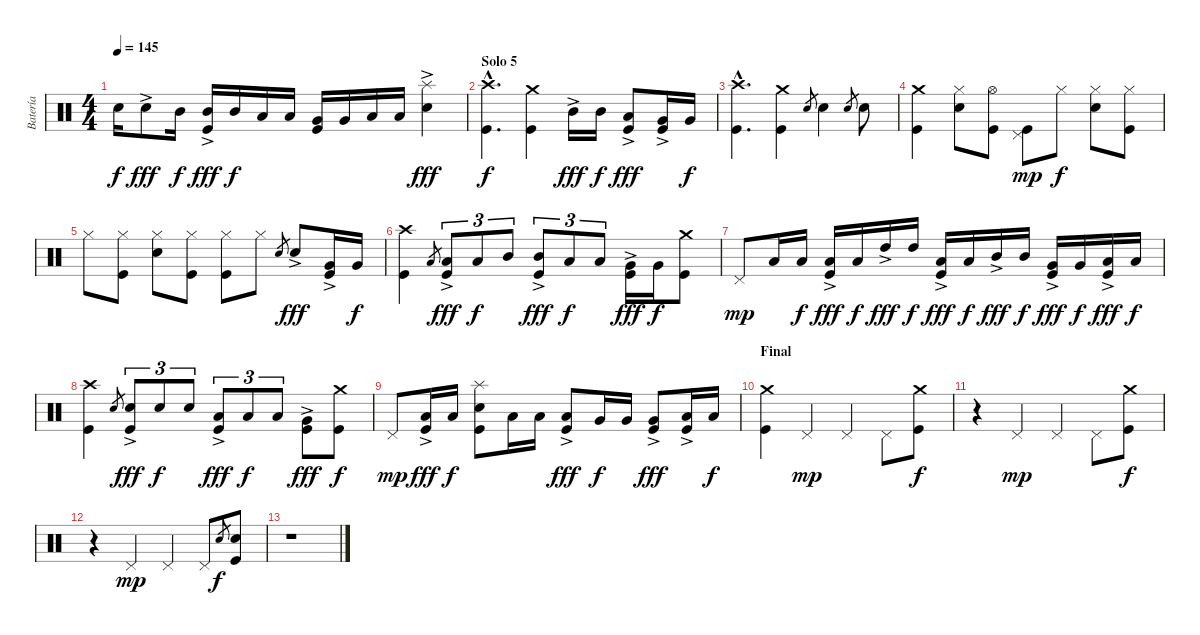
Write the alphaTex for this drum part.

\track ("Batería" "Batería") {instrument percussion}
\staff {score}
\articulation defaults
\ts (4 4)
\tempo 145
\clef neutral
\ks c "Electric Snare (hit)".16{dy f} "Electric Snare (hit)"{ac}.8{dy fff} "Mid Tom (hit)".16{dy f}
("Kick (hit)" "Mid Tom (hit)"{ac}).16{dy fff} "Mid Tom (hit)".16{dy f} "Low Tom (hit)".16 "Low Tom (hit)".16 ("Kick (hit)" "Very Low Tom (hit)").16 "Very Low Tom (hit)".16 "Low Floor Tom (hit)".16 "Low Floor Tom (hit)".16 ("Electric Snare (hit)" "Splash (hit)"{ac}).4{dy fff} |
\section ("" "Solo 5")
("Kick (hit)"{hac} "Crash high (hit)"{hac}).4{d dy f} ("Kick (hit)" "Crash medium (hit)").4 "Mid Tom (hit)"{ac}.16{dy fff} "Mid Tom (hit)".16{dy f} ("Kick (hit)" "Low Tom (hit)"{ac}).8{dy fff} ("Kick (hit)" "Very Low Tom (hit)"{ac}).16 "Very Low Tom (hit)".16{dy f} |
("Kick (hit)"{hac} "Crash high (hit)"{hac}).4{d} ("Kick (hit)" "Crash medium (hit)").4 "Electric Snare (hit)".8{gr} "Electric Snare (hit)".4 "Electric Snare (hit)".8{gr} "Electric Snare (hit)".8 |
("Kick (hit)" "Crash medium (hit)").4 ("Electric Snare (hit)" "Hi-Hat (closed)").8 ("Kick (hit)" "Hi-Hat (open)").8 ("Kick (hit)" "Pedal Hi-Hat (hit)").8{dy mp} "Hi-Hat (closed)".8{dy f} ("Electric Snare (hit)" "Hi-Hat (closed)").8 ("Kick (hit)" "Hi-Hat (closed)").8 |
"Hi-Hat (closed)".8 ("Kick (hit)" "Hi-Hat (closed)").8 ("Electric Snare (hit)" "Hi-Hat (closed)").8 ("Kick (hit)" "Hi-Hat (closed)").8 ("Kick (hit)" "Hi-Hat (closed)").8 "Hi-Hat (closed)".8 "Electric Snare (hit)".8{gr} "Electric Snare (hit)"{ac}.8{dy fff} ("Kick (hit)" "Very Low Tom (hit)"{ac}).16 "Very Low Tom (hit)".16{dy f} |
("Kick (hit)" "Crash high (hit)").4 "Low Tom (hit)".8{gr} ("Kick (hit)" "Low Tom (hit)"{ac}).8{tu (3 2) dy fff} "Low Tom (hit)".8{tu (3 2) dy f} "Mid Tom (hit)".8{tu (3 2)} ("Kick (hit)" "Mid Tom (hit)"{ac}).8{tu (3 2) dy fff} "Low Tom (hit)".8{tu (3 2) dy f} "Low Tom (hit)".8{tu (3 2)} ("Kick (hit)" "Very Low Tom (hit)"{ac}).16{dy fff} "Very Low Tom (hit)".16{dy f} ("Kick (hit)" "Crash medium (hit)").8 |
"Pedal Hi-Hat (hit)".8{dy mp} "Low Tom (hit)".16 "Low Tom (hit)".16{dy f} ("Kick (hit)" "Low Tom (hit)"{ac}).16{dy fff} "Low Tom (hit)".16{dy f} "High Tom (hit)"{ac}.16{dy fff} "High Tom (hit)".16{dy f} ("Kick (hit)" "Low Tom (hit)"{ac}).16{dy fff} "Low Tom (hit)".16{dy f} "Mid Tom (hit)"{ac}.16{dy fff} "Mid Tom (hit)".16{dy f} ("Kick (hit)" "Very Low Tom (hit)"{ac}).16{dy fff} "Very Low Tom (hit)".16{dy f} ("Kick (hit)" "Low Floor Tom (hit)"{ac}).16{dy fff} "Low Floor Tom (hit)".16{dy f} |
("Kick (hit)" "Crash high (hit)").4 "Electric Snare (hit)".8{gr} ("Kick (hit)" "Electric Snare (hit)"{ac}).8{tu (3 2) dy fff} "Electric Snare (hit)".8{tu (3 2) dy f} "Electric Snare (hit)".8{tu (3 2)} ("Kick (hit)" "Low Tom (hit)"{ac}).8{tu (3 2) dy fff} "Low Tom (hit)".8{tu (3 2) dy f} "Low Tom (hit)".8{tu (3 2)} ("Kick (hit)" "Very Low Tom (hit)"{ac}).8{dy fff} ("Kick (hit)" "Crash medium (hit)").8{dy f} |
"Pedal Hi-Hat (hit)".8{dy mp} ("Kick (hit)" "Low Tom (hit)"{ac}).16{dy fff} "Low Tom (hit)".16{dy f} ("Kick (hit)" "Electric Snare (hit)" "Splash (hit)").8 "Low Tom (hit)".16 "Low Tom (hit)".16 ("Kick (hit)" "Low Tom (hit)"{ac}).8{dy fff} "Very Low Tom (hit)".16{dy f} "Very Low Tom (hit)".16 ("Kick (hit)" "Very Low Tom (hit)"{ac}).8{dy fff} ("Kick (hit)" "Low Floor Tom (hit)"{ac}).16 "Low Floor Tom (hit)".16{dy f} |
\section ("" "Final")
("Kick (hit)" "Crash medium (hit)").4 "Pedal Hi-Hat (hit)".4{dy mp} "Pedal Hi-Hat (hit)".4 "Pedal Hi-Hat (hit)".8 ("Kick (hit)" "Crash medium (hit)").8{dy f} |
r.4 "Pedal Hi-Hat (hit)".4{dy mp} "Pedal Hi-Hat (hit)".4 "Pedal Hi-Hat (hit)".8 ("Kick (hit)" "Crash medium (hit)").8{dy f} |
r.4 "Pedal Hi-Hat (hit)".4{dy mp} "Pedal Hi-Hat (hit)".4 "Pedal Hi-Hat (hit)".8 "Electric Snare (hit)".8{gr dy f} ("Kick (hit)" "Electric Snare (hit)").8 |
r.1
